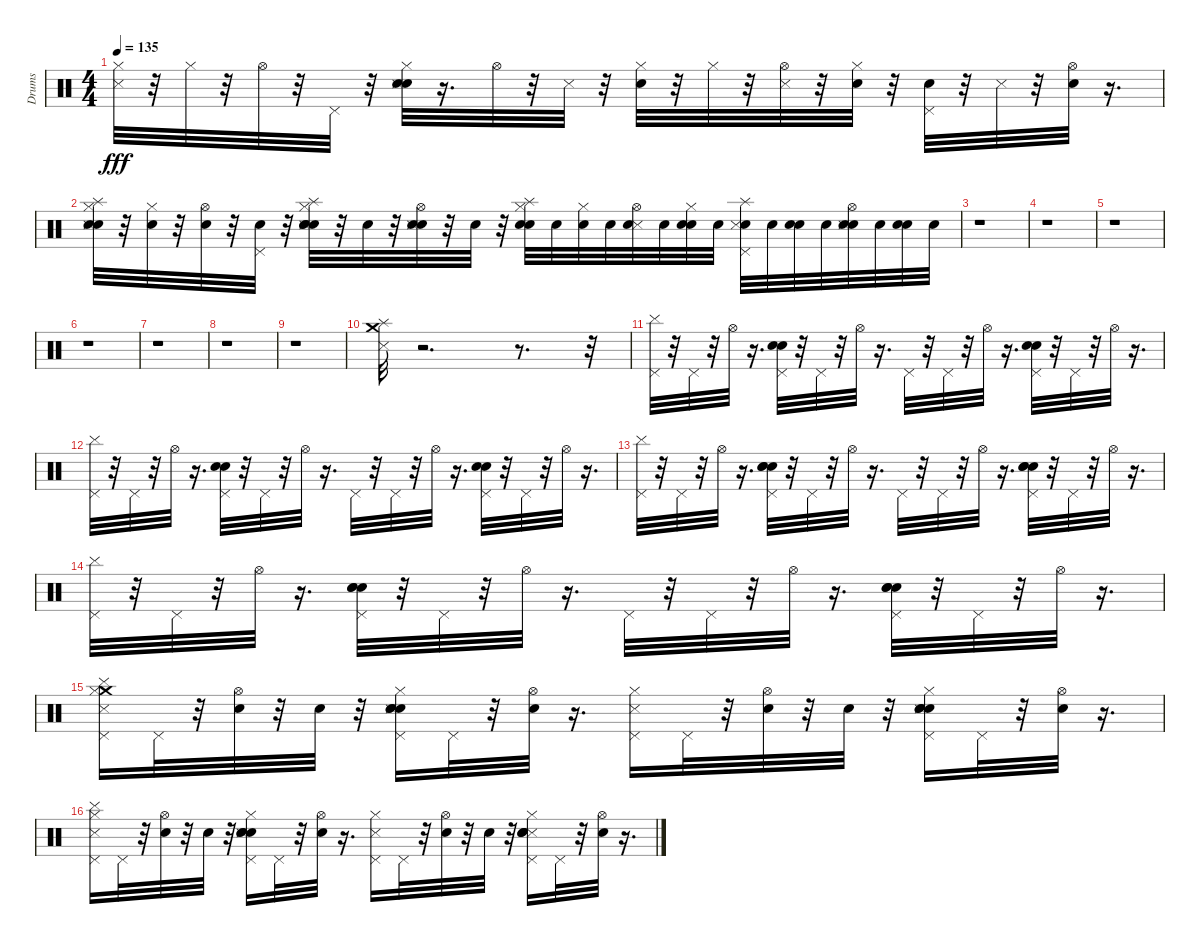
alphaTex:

\track ("Drums" "Drums") {instrument percussion}
\staff {score}
\articulation defaults
\ts (4 4)
\tempo 135
\clef neutral
\ks c
("Metronome (hit)" "Hi-Hat (closed)").32{dy fff} r.32 "Hi-Hat (closed)".32 r.32 "Hi-Hat (open)".32 r.32 "Pedal Hi-Hat (hit)".32 r.32 ("Hand Clap (hit)" "Electric Snare (hit)" "Hi-Hat (closed)" "Metronome (hit)").32 r.16{d} "Hi-Hat (open)".32 r.32 "Metronome (hit)".32 r.32 ("Electric Snare (hit)" "Hi-Hat (closed)").32 r.32 "Hi-Hat (closed)".32 r.32 ("Hi-Hat (open)" "Metronome (hit)").32 r.32 ("Electric Snare (hit)" "Hi-Hat (closed)").32 r.32 ("Hand Clap (hit)" "Pedal Hi-Hat (hit)").32 r.32 "Metronome (hit)".32 r.32 ("Hi-Hat (open)" "Electric Snare (hit)").32 r.16{d} |
("Snare (hit) 2" "Electric Snare (hit)" "Metronome (hit)" "Hi-Hat (closed)" "Splash (hit)").32 r.32 ("Snare (hit) 2" "Hi-Hat (closed)").32 r.32 ("Snare (hit) 2" "Hi-Hat (open)").32 r.32 ("Snare (hit) 2" "Pedal Hi-Hat (hit)").32 r.32 ("Snare (hit) 2" "Splash (hit)" "Hand Clap (hit)" "Electric Snare (hit)" "Hi-Hat (closed)" "Metronome (hit)").32 r.32 "Snare (hit) 2".32 r.32 ("Snare (hit) 2" "Electric Snare (hit)" "Hi-Hat (open)" "Metronome (hit)").32 r.32 "Snare (hit) 2".32 r.32 ("Splash (hit)" "Electric Snare (hit)" "Hi-Hat (closed)" "Snare (hit) 2").32 "Snare (hit) 2".32 ("Hi-Hat (closed)" "Snare (hit) 2").32 "Snare (hit) 2".32 ("Metronome (hit)" "Snare (hit) 2" "Hi-Hat (open)").32 "Snare (hit) 2".32 ("Hi-Hat (closed)" "Snare (hit) 2" "Electric Snare (hit)").32 "Snare (hit) 2".32 ("Snare (hit) 2" "Splash (hit)" "Metronome (hit)" "Pedal Hi-Hat (hit)").32 "Snare (hit) 2".32 ("Electric Snare (hit)" "Snare (hit) 2").32 "Snare (hit) 2".32 ("Hi-Hat (open)" "Snare (hit) 2" "Metronome (hit)" "Electric Snare (hit)").32 "Snare (hit) 2".32 ("Electric Snare (hit)" "Snare (hit) 2").32 "Snare (hit) 2".32 |
r.1 |
r.1 |
r.1 |
r.1 |
r.1 |
r.1 |
r.1 |
("Metronome (hit)" "Crash medium (hit)" "Splash (hit)").32 r.2{d} r.8{d} r.32 |
("Cymbal (hit)" "Pedal Hi-Hat (hit)").32 r.32 "Pedal Hi-Hat (hit)".32 r.32 "Hi-Hat (open)".32 r.16{d} ("Hand Clap (hit)" "Snare (hit)" "Pedal Hi-Hat (hit)").32 r.32 "Pedal Hi-Hat (hit)".32 r.32 "Hi-Hat (open)".32 r.16{d} "Pedal Hi-Hat (hit)".32 r.32 "Pedal Hi-Hat (hit)".32 r.32 "Hi-Hat (open)".32 r.16{d} ("Snare (hit)" "Pedal Hi-Hat (hit)" "Hand Clap (hit)").32 r.32 "Pedal Hi-Hat (hit)".32 r.32 "Hi-Hat (open)".32 r.16{d} |
("Cymbal (hit)" "Pedal Hi-Hat (hit)").32 r.32 "Pedal Hi-Hat (hit)".32 r.32 "Hi-Hat (open)".32 r.16{d} ("Hand Clap (hit)" "Snare (hit)" "Pedal Hi-Hat (hit)").32 r.32 "Pedal Hi-Hat (hit)".32 r.32 "Hi-Hat (open)".32 r.16{d} "Pedal Hi-Hat (hit)".32 r.32 "Pedal Hi-Hat (hit)".32 r.32 "Hi-Hat (open)".32 r.16{d} ("Hand Clap (hit)" "Pedal Hi-Hat (hit)" "Snare (hit)").32 r.32 "Pedal Hi-Hat (hit)".32 r.32 "Hi-Hat (open)".32 r.16{d} |
("Cymbal (hit)" "Pedal Hi-Hat (hit)").32 r.32 "Pedal Hi-Hat (hit)".32 r.32 "Hi-Hat (open)".32 r.16{d} ("Electric Snare (hit)" "Snare (hit)" "Hand Clap (hit)" "Pedal Hi-Hat (hit)").32 r.32 "Pedal Hi-Hat (hit)".32 r.32 "Hi-Hat (open)".32 r.16{d} "Pedal Hi-Hat (hit)".32 r.32 "Pedal Hi-Hat (hit)".32 r.32 "Hi-Hat (open)".32 r.16{d} ("Snare (hit)" "Electric Snare (hit)" "Pedal Hi-Hat (hit)" "Hand Clap (hit)").32 r.32 "Pedal Hi-Hat (hit)".32 r.32 "Hi-Hat (open)".32 r.16{d} |
("Cymbal (hit)" "Pedal Hi-Hat (hit)").32 r.32 "Pedal Hi-Hat (hit)".32 r.32 "Hi-Hat (open)".32 r.16{d} ("Electric Snare (hit)" "Hand Clap (hit)" "Snare (hit)" "Pedal Hi-Hat (hit)").32 r.32 "Pedal Hi-Hat (hit)".32 r.32 "Hi-Hat (open)".32 r.16{d} "Pedal Hi-Hat (hit)".32 r.32 "Pedal Hi-Hat (hit)".32 r.32 "Hi-Hat (open)".32 r.16{d} ("Hand Clap (hit)" "Pedal Hi-Hat (hit)" "Snare (hit)" "Electric Snare (hit)").32 r.32 "Pedal Hi-Hat (hit)".32 r.32 "Hi-Hat (open)".32 r.16{d} |
("Cymbal (hit)" "Crash medium (hit)" "Pedal Hi-Hat (hit)" "Hi-Hat (closed)" "Metronome (hit)").16 "Pedal Hi-Hat (hit)".32 r.32 ("Hi-Hat (open)" "Snare (hit)").32 r.32 "Snare (hit)".32 r.32 ("Electric Snare (hit)" "Hand Clap (hit)" "Hi-Hat (closed)" "Snare (hit)" "Metronome (hit)" "Pedal Hi-Hat (hit)").16 "Pedal Hi-Hat (hit)".32 r.32 ("Snare (hit)" "Hi-Hat (open)").32 r.16{d} ("Pedal Hi-Hat (hit)" "Hi-Hat (closed)" "Metronome (hit)").16 "Pedal Hi-Hat (hit)".32 r.32 ("Snare (hit)" "Hi-Hat (open)").32 r.32 "Snare (hit)".32 r.32 ("Hi-Hat (closed)" "Electric Snare (hit)" "Snare (hit)" "Pedal Hi-Hat (hit)" "Metronome (hit)" "Hand Clap (hit)").16 "Pedal Hi-Hat (hit)".32 r.32 ("Snare (hit)" "Hi-Hat (open)").32 r.16{d} |
("Cymbal (hit)" "Pedal Hi-Hat (hit)" "Hi-Hat (closed)" "Metronome (hit)").16 "Pedal Hi-Hat (hit)".32 r.32 ("Hi-Hat (open)" "Snare (hit)").32 r.32 "Snare (hit)".32 r.32 ("Hand Clap (hit)" "Snare (hit)" "Hi-Hat (closed)" "Pedal Hi-Hat (hit)" "Metronome (hit)" "Electric Snare (hit)").16 "Pedal Hi-Hat (hit)".32 r.32 ("Hi-Hat (open)" "Snare (hit)").32 r.16{d} ("Metronome (hit)" "Pedal Hi-Hat (hit)" "Hi-Hat (closed)").16 "Pedal Hi-Hat (hit)".32 r.32 ("Hi-Hat (open)" "Snare (hit)").32 r.32 "Snare (hit)".32 r.32 ("Metronome (hit)" "Hi-Hat (closed)" "Hand Clap (hit)" "Pedal Hi-Hat (hit)" "Snare (hit)" "Electric Snare (hit)").16 "Pedal Hi-Hat (hit)".32 r.32 ("Hi-Hat (open)" "Snare (hit)").32 r.16{d}
